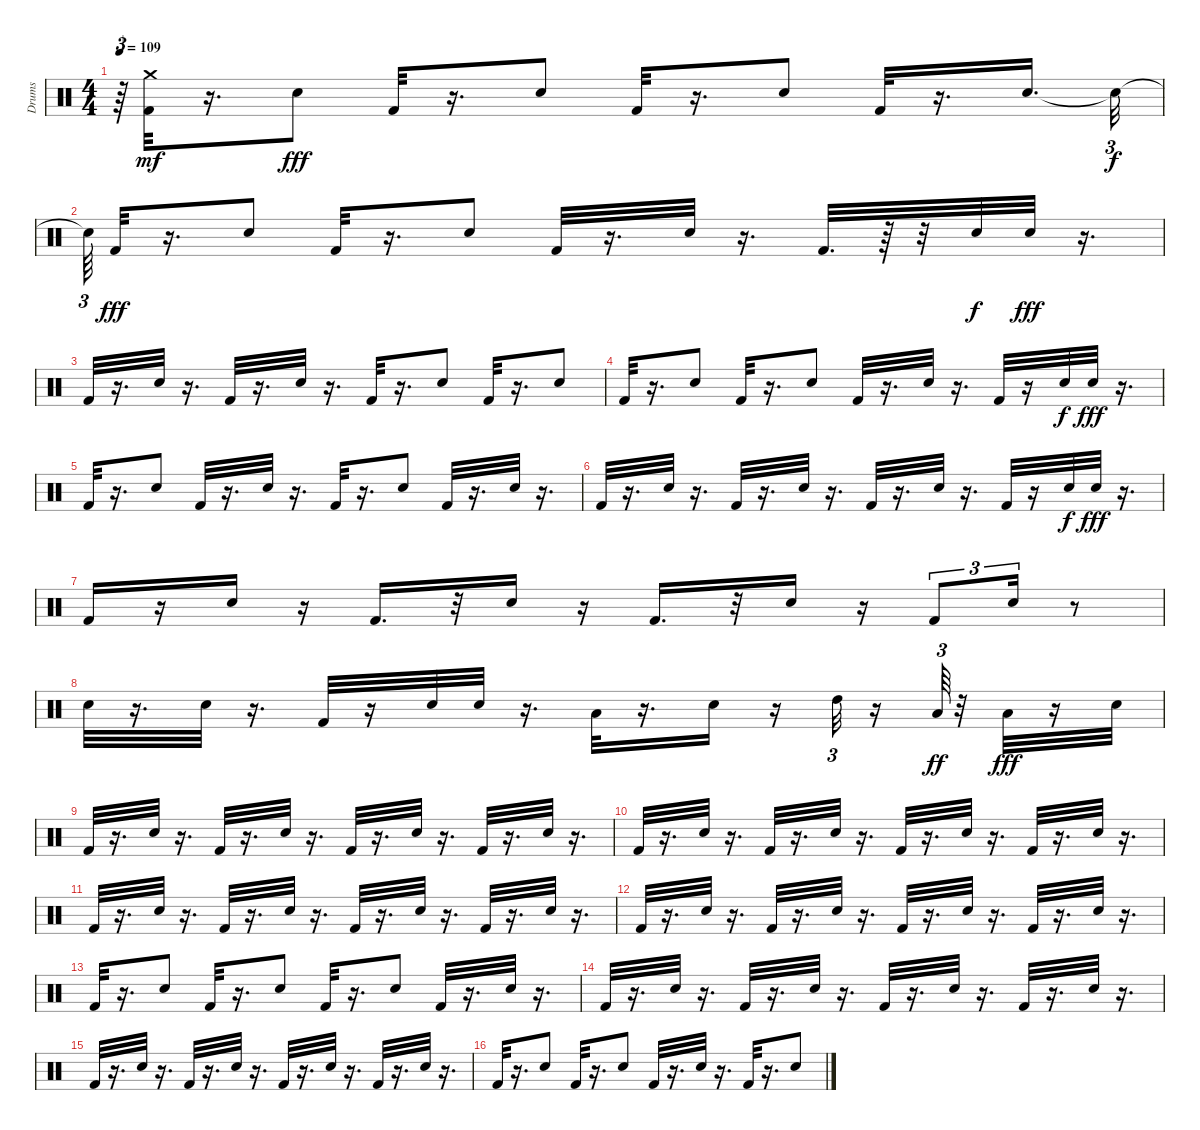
\track ("Drums" "Drums") {instrument percussion}
\staff {score}
\articulation defaults
\ts (4 4)
\tempo 109
\clef neutral
\ks c
r.64{tu (3 2) dy fff} ("Kick (hit) 2" "Crash medium (hit)").32{dy mf} r.16{d} "Snare (hit) 2".8{dy fff} "Kick (hit) 2".32 r.16{d} "Snare (hit) 2".8 "Kick (hit) 2".32 r.16{d} "Snare (hit) 2".8 "Kick (hit) 2".32 r.16{d} "Snare (hit) 2".16{d} "Snare (hit)"{t}.32{tu (3 2) dy f} |
"Snare (hit)"{t}.64{tu (3 2)} "Kick (hit) 2".32{dy fff} r.16{d} "Snare (hit) 2".8 "Kick (hit) 2".32 r.16{d} "Snare (hit) 2".8 "Kick (hit) 2".32 r.16{d} "Snare (hit) 2".32 r.16{d} "Kick (hit) 2".32{d} r.64 r.32 "Snare (hit) 2".32{dy f} "Snare (hit) 2".32{dy fff} r.16{d} |
"Kick (hit) 2".32 r.16{d} "Snare (hit) 2".32 r.16{d} "Kick (hit) 2".32 r.16{d} "Snare (hit) 2".32 r.16{d} "Kick (hit) 2".32 r.16{d} "Snare (hit) 2".8 "Kick (hit) 2".32 r.16{d} "Snare (hit) 2".8 |
"Kick (hit) 2".32 r.16{d} "Snare (hit) 2".8 "Kick (hit) 2".32 r.16{d} "Snare (hit) 2".8 "Kick (hit) 2".32 r.16{d} "Snare (hit) 2".32 r.16{d} "Kick (hit) 2".32 r.16 "Snare (hit) 2".32{dy f} "Snare (hit) 2".32{dy fff} r.16{d} |
"Kick (hit) 2".32 r.16{d} "Snare (hit) 2".8 "Kick (hit) 2".32 r.16{d} "Snare (hit) 2".32 r.16{d} "Kick (hit) 2".32 r.16{d} "Snare (hit) 2".8 "Kick (hit) 2".32 r.16{d} "Snare (hit) 2".32 r.16{d} |
"Kick (hit) 2".32 r.16{d} "Snare (hit) 2".32 r.16{d} "Kick (hit) 2".32 r.16{d} "Snare (hit) 2".32 r.16{d} "Kick (hit) 2".32 r.16{d} "Snare (hit) 2".32 r.16{d} "Kick (hit) 2".32 r.16 "Snare (hit) 2".32{dy f} "Snare (hit) 2".32{dy fff} r.16{d} |
"Kick (hit) 2".16 r.16 "Snare (hit) 2".16 r.16 "Kick (hit) 2".16{d} r.32 "Snare (hit) 2".16 r.16 "Kick (hit) 2".16{d} r.32 "Snare (hit) 2".16 r.16 "Kick (hit) 2".8{tu (3 2)} "Snare (hit) 2".16{tu (3 2)} r.8 |
"Snare (hit) 2".32 r.16{d} "Snare (hit) 2".32 r.16{d} "Kick (hit) 2".32 r.16 "Snare (hit) 2".32 "Snare (hit) 2".32 r.16{d} "Low Floor Tom (hit)".32 r.16{d} "Snare (hit) 2".16 r.16 "High Tom (hit)".32{tu (3 2)} r.16 "Low Tom (hit)".64{tu (3 2) dy ff} r.32 "Low Floor Tom (hit)".32{dy fff} r.16 "Snare (hit) 2".32 |
"Kick (hit) 2".32 r.16{d} "Snare (hit) 2".32 r.16{d} "Kick (hit) 2".32 r.16{d} "Snare (hit) 2".32 r.16{d} "Kick (hit) 2".32 r.16{d} "Snare (hit) 2".32 r.16{d} "Kick (hit) 2".32 r.16{d} "Snare (hit) 2".32 r.16{d} |
"Kick (hit) 2".32 r.16{d} "Snare (hit) 2".32 r.16{d} "Kick (hit) 2".32 r.16{d} "Snare (hit) 2".32 r.16{d} "Kick (hit) 2".32 r.16{d} "Snare (hit) 2".32 r.16{d} "Kick (hit) 2".32 r.16{d} "Snare (hit) 2".32 r.16{d} |
"Kick (hit) 2".32 r.16{d} "Snare (hit) 2".32 r.16{d} "Kick (hit) 2".32 r.16{d} "Snare (hit) 2".32 r.16{d} "Kick (hit) 2".32 r.16{d} "Snare (hit) 2".32 r.16{d} "Kick (hit) 2".32 r.16{d} "Snare (hit) 2".32 r.16{d} |
"Kick (hit) 2".32 r.16{d} "Snare (hit) 2".32 r.16{d} "Kick (hit) 2".32 r.16{d} "Snare (hit) 2".32 r.16{d} "Kick (hit) 2".32 r.16{d} "Snare (hit) 2".32 r.16{d} "Kick (hit) 2".32 r.16{d} "Snare (hit) 2".32 r.16{d} |
"Kick (hit) 2".32 r.16{d} "Snare (hit) 2".8 "Kick (hit) 2".32 r.16{d} "Snare (hit) 2".8 "Kick (hit) 2".32 r.16{d} "Snare (hit) 2".8 "Kick (hit) 2".32 r.16{d} "Snare (hit) 2".32 r.16{d} |
"Kick (hit) 2".32 r.16{d} "Snare (hit) 2".32 r.16{d} "Kick (hit) 2".32 r.16{d} "Snare (hit) 2".32 r.16{d} "Kick (hit) 2".32 r.16{d} "Snare (hit) 2".32 r.16{d} "Kick (hit) 2".32 r.16{d} "Snare (hit) 2".32 r.16{d} |
"Kick (hit) 2".32 r.16{d} "Snare (hit) 2".32 r.16{d} "Kick (hit) 2".32 r.16{d} "Snare (hit) 2".32 r.16{d} "Kick (hit) 2".32 r.16{d} "Snare (hit) 2".32 r.16{d} "Kick (hit) 2".32 r.16{d} "Snare (hit) 2".32 r.16{d} |
"Kick (hit) 2".32 r.16{d} "Snare (hit) 2".8 "Kick (hit) 2".32 r.16{d} "Snare (hit) 2".8 "Kick (hit) 2".32 r.16{d} "Snare (hit) 2".32 r.16{d} "Kick (hit) 2".32 r.16{d} "Snare (hit) 2".8
